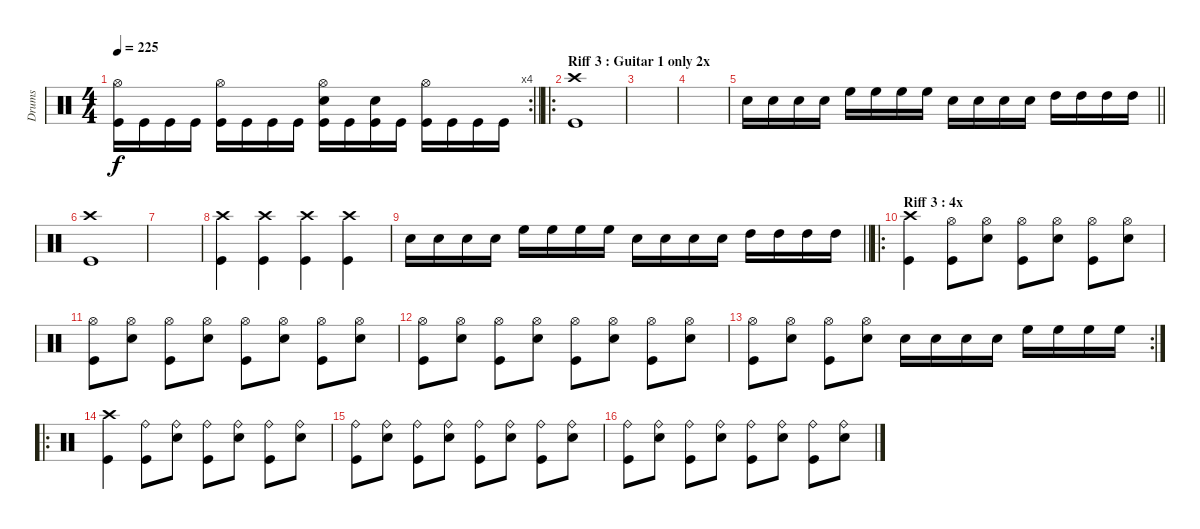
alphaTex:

\track ("Drums" "Drums") {instrument percussion}
\staff {score}
\articulation defaults
\rc 4
\ts (4 4)
\tempo 225
\clef neutral
\barLineRight lightlight
\ks c
("Hi-Hat (open)" "Kick (hit)").16{dy f} "Kick (hit)".16 "Kick (hit)".16 "Kick (hit)".16 ("Hi-Hat (open)" "Kick (hit)").16 "Kick (hit)".16 "Kick (hit)".16 "Kick (hit)".16 ("Hi-Hat (open)" "Electric Snare (hit)" "Kick (hit)").16 "Kick (hit)".16 ("Electric Snare (hit)" "Kick (hit)").16 "Kick (hit)".16 ("Hi-Hat (open)" "Kick (hit)").16 "Kick (hit)".16 "Kick (hit)".16 "Kick (hit)".16 |
\ro
\section ("" "Riff 3 : Guitar 1 only 2x")
("Crash high (hit)" "Kick (hit)").1 |
|
|
\barLineRight lightlight "Electric Snare (hit)".16 "Electric Snare (hit)".16 "Electric Snare (hit)".16 "Electric Snare (hit)".16 "High Floor Tom (hit)".16 "High Floor Tom (hit)".16 "High Floor Tom (hit)".16 "High Floor Tom (hit)".16 "Electric Snare (hit)".16 "Electric Snare (hit)".16 "Electric Snare (hit)".16 "Electric Snare (hit)".16 "High Tom (hit)".16 "High Tom (hit)".16 "High Tom (hit)".16 "High Tom (hit)".16
|
("Crash high (hit)" "Kick (hit)").1 |
|
("Crash high (hit)" "Kick (hit)").4 ("Crash high (hit)" "Kick (hit)").4 ("Crash high (hit)" "Kick (hit)").4 ("Crash high (hit)" "Kick (hit)").4 |
\barLineRight lightlight "Electric Snare (hit)".16 "Electric Snare (hit)".16 "Electric Snare (hit)".16 "Electric Snare (hit)".16 "High Floor Tom (hit)".16 "High Floor Tom (hit)".16 "High Floor Tom (hit)".16 "High Floor Tom (hit)".16 "Electric Snare (hit)".16 "Electric Snare (hit)".16 "Electric Snare (hit)".16 "Electric Snare (hit)".16 "High Tom (hit)".16 "High Tom (hit)".16 "High Tom (hit)".16 "High Tom (hit)".16
|
\ro
\section ("" "Riff 3 : 4x")
("Crash high (hit)" "Kick (hit)").4 ("Hi-Hat (open)" "Kick (hit)").8 ("Hi-Hat (open)" "Electric Snare (hit)").8 ("Hi-Hat (open)" "Kick (hit)").8 ("Hi-Hat (open)" "Electric Snare (hit)").8 ("Hi-Hat (open)" "Kick (hit)").8 ("Hi-Hat (open)" "Electric Snare (hit)").8 |
("Hi-Hat (open)" "Kick (hit)").8 ("Hi-Hat (open)" "Electric Snare (hit)").8 ("Hi-Hat (open)" "Kick (hit)").8 ("Hi-Hat (open)" "Electric Snare (hit)").8 ("Hi-Hat (open)" "Kick (hit)").8 ("Hi-Hat (open)" "Electric Snare (hit)").8 ("Hi-Hat (open)" "Kick (hit)").8 ("Hi-Hat (open)" "Electric Snare (hit)").8 |
("Hi-Hat (open)" "Kick (hit)").8 ("Hi-Hat (open)" "Electric Snare (hit)").8 ("Hi-Hat (open)" "Kick (hit)").8 ("Hi-Hat (open)" "Electric Snare (hit)").8 ("Hi-Hat (open)" "Kick (hit)").8 ("Hi-Hat (open)" "Electric Snare (hit)").8 ("Hi-Hat (open)" "Kick (hit)").8 ("Hi-Hat (open)" "Electric Snare (hit)").8 |
\rc 2
("Hi-Hat (open)" "Kick (hit)").8 ("Hi-Hat (open)" "Electric Snare (hit)").8 ("Hi-Hat (open)" "Kick (hit)").8 ("Hi-Hat (open)" "Electric Snare (hit)").8 "Electric Snare (hit)".16 "Electric Snare (hit)".16 "Electric Snare (hit)".16 "Electric Snare (hit)".16 "High Floor Tom (hit)".16 "High Floor Tom (hit)".16 "High Floor Tom (hit)".16 "High Floor Tom (hit)".16 |
\ro
("Crash high (hit)" "Kick (hit)").4 ("Ride (bell)" "Kick (hit)").8 ("Ride (bell)" "Electric Snare (hit)").8 ("Ride (bell)" "Kick (hit)").8 ("Ride (bell)" "Electric Snare (hit)").8 ("Ride (bell)" "Kick (hit)").8 ("Ride (bell)" "Electric Snare (hit)").8 |
("Ride (bell)" "Kick (hit)").8 ("Ride (bell)" "Electric Snare (hit)").8 ("Ride (bell)" "Kick (hit)").8 ("Ride (bell)" "Electric Snare (hit)").8 ("Ride (bell)" "Kick (hit)").8 ("Ride (bell)" "Electric Snare (hit)").8 ("Ride (bell)" "Kick (hit)").8 ("Ride (bell)" "Electric Snare (hit)").8 |
("Ride (bell)" "Kick (hit)").8 ("Ride (bell)" "Electric Snare (hit)").8 ("Ride (bell)" "Kick (hit)").8 ("Ride (bell)" "Electric Snare (hit)").8 ("Ride (bell)" "Kick (hit)").8 ("Ride (bell)" "Electric Snare (hit)").8 ("Ride (bell)" "Kick (hit)").8 ("Ride (bell)" "Electric Snare (hit)").8
